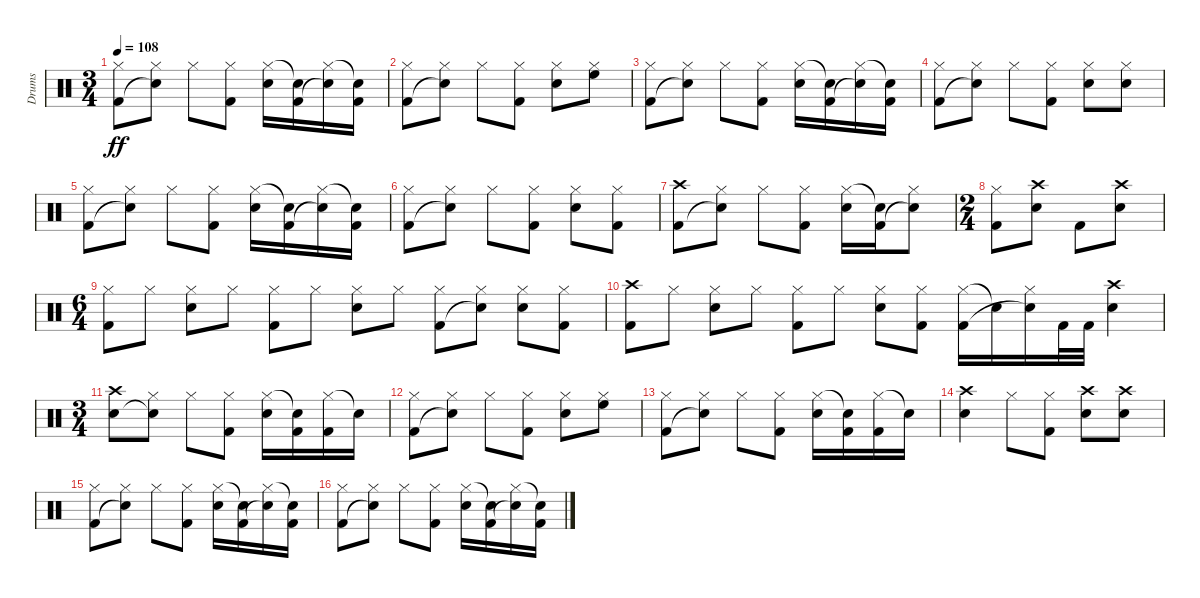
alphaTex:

\track ("Drums" "Drums") {instrument percussion}
\staff {score}
\articulation defaults
\ts (3 4)
\tempo 108
\clef neutral
\ks c
("Hi-Hat (closed)" "Kick (hit) 2").8{dy ff} ("Hi-Hat (closed)" "Snare (hit)"{t}).8 "Hi-Hat (closed)".8 ("Hi-Hat (closed)" "Kick (hit) 2").8 ("Hi-Hat (closed)" "Snare (hit) 2").16 ("Snare (hit)"{t} "Kick (hit) 2").16 ("Hi-Hat (closed)" "Snare (hit)"{t}).16 ("Snare (hit)"{t} "Kick (hit) 2").16 |
("Hi-Hat (closed)" "Kick (hit) 2").8 ("Hi-Hat (closed)" "Snare (hit)"{t}).8 "Hi-Hat (closed)".8 ("Hi-Hat (closed)" "Kick (hit) 2").8 ("Hi-Hat (closed)" "Snare (hit) 2").8 ("Hi-Hat (closed)" "High Floor Tom (hit)").8 |
("Hi-Hat (closed)" "Kick (hit) 2").8 ("Hi-Hat (closed)" "Snare (hit)"{t}).8 "Hi-Hat (closed)".8 ("Hi-Hat (closed)" "Kick (hit) 2").8 ("Hi-Hat (closed)" "Snare (hit) 2").16 ("Snare (hit)"{t} "Kick (hit) 2").16 ("Hi-Hat (closed)" "Snare (hit)"{t}).16 ("Snare (hit)"{t} "Kick (hit) 2").16 |
("Hi-Hat (closed)" "Kick (hit) 2").8 ("Hi-Hat (closed)" "Snare (hit)"{t}).8 "Hi-Hat (closed)".8 ("Hi-Hat (closed)" "Kick (hit) 2").8 ("Hi-Hat (closed)" "Snare (hit) 2").8 ("Hi-Hat (closed)" "Snare (hit) 2").8 |
("Hi-Hat (closed)" "Kick (hit) 2").8 ("Hi-Hat (closed)" "Snare (hit)"{t}).8 "Hi-Hat (closed)".8 ("Hi-Hat (closed)" "Kick (hit) 2").8 ("Hi-Hat (closed)" "Snare (hit) 2").16 ("Snare (hit)"{t} "Kick (hit) 2").16 ("Hi-Hat (closed)" "Snare (hit)"{t}).16 ("Snare (hit)"{t} "Kick (hit) 2").16 |
("Hi-Hat (closed)" "Kick (hit) 2").8 ("Hi-Hat (closed)" "Snare (hit)"{t}).8 "Hi-Hat (closed)".8 ("Hi-Hat (closed)" "Kick (hit) 2").8 ("Hi-Hat (closed)" "Snare (hit) 2").8 ("Hi-Hat (closed)" "Kick (hit) 2").8 |
("Crash high (hit)" "Kick (hit) 2").8 ("Hi-Hat (closed)" "Snare (hit)"{t}).8 "Hi-Hat (closed)".8 ("Hi-Hat (closed)" "Kick (hit) 2").8 ("Hi-Hat (closed)" "Snare (hit) 2").16 ("Snare (hit)"{t} "Kick (hit) 2").16 ("Hi-Hat (closed)" "Snare (hit)"{t}).8 |
\ts (2 4)
("Hi-Hat (closed)" "Kick (hit) 2").8 ("Crash high (hit)" "Snare (hit) 2").8 "Kick (hit) 2".8 ("Crash high (hit)" "Snare (hit) 2").8 |
\ts (6 4)
("Hi-Hat (closed)" "Kick (hit) 2").8 "Hi-Hat (closed)".8 ("Hi-Hat (closed)" "Snare (hit) 2").8 "Hi-Hat (closed)".8 ("Hi-Hat (closed)" "Kick (hit) 2").8 "Hi-Hat (closed)".8 ("Hi-Hat (closed)" "Snare (hit) 2").8 "Hi-Hat (closed)".8 ("Hi-Hat (closed)" "Kick (hit) 2").8 ("Hi-Hat (closed)" "Snare (hit)"{t}).8 ("Hi-Hat (closed)" "Snare (hit) 2").8 ("Hi-Hat (closed)" "Kick (hit) 2").8 |
("Crash high (hit)" "Kick (hit) 2").8 "Hi-Hat (closed)".8 ("Hi-Hat (closed)" "Snare (hit) 2").8 "Hi-Hat (closed)".8 ("Hi-Hat (closed)" "Kick (hit) 2").8 "Hi-Hat (closed)".8 ("Hi-Hat (closed)" "Snare (hit) 2").8 ("Hi-Hat (closed)" "Kick (hit) 2").8 ("Hi-Hat (closed)" "Kick (hit) 2").16 "Snare (hit)"{t}.16 ("Hi-Hat (closed)" "Snare (hit)"{t}).16 "Kick (hit) 2".32 "Kick (hit) 2".32 ("Crash high (hit)" "Snare (hit) 2").4 |
\ts (3 4)
("Crash high (hit)" "Snare (hit) 2").8 ("Hi-Hat (closed)" "Snare (hit)"{t}).8 "Hi-Hat (closed)".8 ("Hi-Hat (closed)" "Kick (hit) 2").8 ("Hi-Hat (closed)" "Snare (hit) 2").16 ("Snare (hit)"{t} "Kick (hit) 2").16 ("Hi-Hat (closed)" "Kick (hit) 2").16 "Snare (hit)"{t}.16 |
("Hi-Hat (closed)" "Kick (hit) 2").8 ("Hi-Hat (closed)" "Snare (hit)"{t}).8 "Hi-Hat (closed)".8 ("Hi-Hat (closed)" "Kick (hit) 2").8 ("Hi-Hat (closed)" "Snare (hit) 2").8 ("Hi-Hat (closed)" "High Floor Tom (hit)").8 |
("Hi-Hat (closed)" "Kick (hit) 2").8 ("Hi-Hat (closed)" "Snare (hit)"{t}).8 "Hi-Hat (closed)".8 ("Hi-Hat (closed)" "Kick (hit) 2").8 ("Hi-Hat (closed)" "Snare (hit) 2").16 ("Snare (hit)"{t} "Kick (hit) 2").16 ("Hi-Hat (closed)" "Kick (hit) 2").16 "Snare (hit)"{t}.16 |
("Crash high (hit)" "Snare (hit) 2").4 "Hi-Hat (closed)".8 ("Hi-Hat (closed)" "Kick (hit) 2").8 ("Crash high (hit)" "Snare (hit) 2").8 ("Crash high (hit)" "Snare (hit) 2").8 |
("Hi-Hat (closed)" "Kick (hit) 2").8 ("Hi-Hat (closed)" "Snare (hit)"{t}).8 "Hi-Hat (closed)".8 ("Hi-Hat (closed)" "Kick (hit) 2").8 ("Hi-Hat (closed)" "Snare (hit) 2").16 ("Snare (hit)"{t} "Kick (hit) 2").16 ("Hi-Hat (closed)" "Snare (hit)"{t}).16 ("Snare (hit)"{t} "Kick (hit) 2").16 |
("Hi-Hat (closed)" "Kick (hit) 2").8 ("Hi-Hat (closed)" "Snare (hit)"{t}).8 "Hi-Hat (closed)".8 ("Hi-Hat (closed)" "Kick (hit) 2").8 ("Hi-Hat (closed)" "Snare (hit) 2").16 ("Snare (hit)"{t} "Kick (hit) 2").16 ("Hi-Hat (closed)" "Snare (hit)"{t}).16 ("Snare (hit)"{t} "Kick (hit) 2").16
